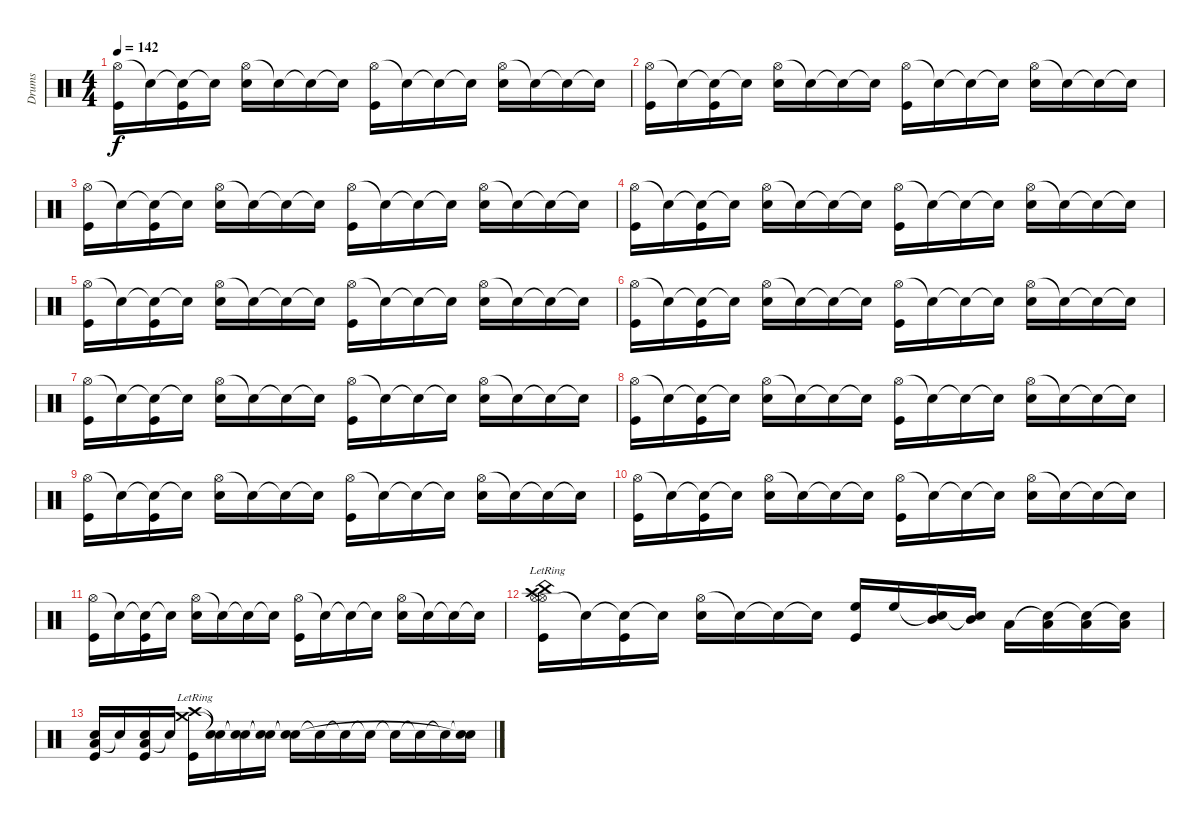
\track ("Drums" "Drums") {instrument percussion}
\staff {score}
\articulation defaults
\ts (4 4)
\tempo 142
\clef neutral
\ks c
("Hi-Hat (open)" "Kick (hit)").16{dy f} "Snare (hit)"{t}.16 ("Snare (hit)"{t} "Kick (hit)").16 "Snare (hit)"{t}.16 ("Hi-Hat (open)" "Snare (hit) 2").16 "Snare (hit)"{t}.16 "Snare (hit)"{t}.16 "Snare (hit)"{t}.16 ("Hi-Hat (open)" "Kick (hit)").16 "Snare (hit)"{t}.16 "Snare (hit)"{t}.16 "Snare (hit)"{t}.16 ("Hi-Hat (open)" "Snare (hit) 2").16 "Snare (hit)"{t}.16 "Snare (hit)"{t}.16 "Snare (hit)"{t}.16 |
("Hi-Hat (open)" "Kick (hit)").16 "Snare (hit)"{t}.16 ("Snare (hit)"{t} "Kick (hit)").16 "Snare (hit)"{t}.16 ("Hi-Hat (open)" "Snare (hit) 2").16 "Snare (hit)"{t}.16 "Snare (hit)"{t}.16 "Snare (hit)"{t}.16 ("Hi-Hat (open)" "Kick (hit)").16 "Snare (hit)"{t}.16 "Snare (hit)"{t}.16 "Snare (hit)"{t}.16 ("Hi-Hat (open)" "Snare (hit) 2").16 "Snare (hit)"{t}.16 "Snare (hit)"{t}.16 "Snare (hit)"{t}.16 |
("Hi-Hat (open)" "Kick (hit)").16 "Snare (hit)"{t}.16 ("Snare (hit)"{t} "Kick (hit)").16 "Snare (hit)"{t}.16 ("Hi-Hat (open)" "Snare (hit) 2").16 "Snare (hit)"{t}.16 "Snare (hit)"{t}.16 "Snare (hit)"{t}.16 ("Hi-Hat (open)" "Kick (hit)").16 "Snare (hit)"{t}.16 "Snare (hit)"{t}.16 "Snare (hit)"{t}.16 ("Hi-Hat (open)" "Snare (hit) 2").16 "Snare (hit)"{t}.16 "Snare (hit)"{t}.16 "Snare (hit)"{t}.16 |
("Hi-Hat (open)" "Kick (hit)").16 "Snare (hit)"{t}.16 ("Snare (hit)"{t} "Kick (hit)").16 "Snare (hit)"{t}.16 ("Hi-Hat (open)" "Snare (hit) 2").16 "Snare (hit)"{t}.16 "Snare (hit)"{t}.16 "Snare (hit)"{t}.16 ("Hi-Hat (open)" "Kick (hit)").16 "Snare (hit)"{t}.16 "Snare (hit)"{t}.16 "Snare (hit)"{t}.16 ("Hi-Hat (open)" "Snare (hit) 2").16 "Snare (hit)"{t}.16 "Snare (hit)"{t}.16 "Snare (hit)"{t}.16 |
("Hi-Hat (open)" "Kick (hit)").16 "Snare (hit)"{t}.16 ("Snare (hit)"{t} "Kick (hit)").16 "Snare (hit)"{t}.16 ("Hi-Hat (open)" "Snare (hit) 2").16 "Snare (hit)"{t}.16 "Snare (hit)"{t}.16 "Snare (hit)"{t}.16 ("Hi-Hat (open)" "Kick (hit)").16 "Snare (hit)"{t}.16 "Snare (hit)"{t}.16 "Snare (hit)"{t}.16 ("Hi-Hat (open)" "Snare (hit) 2").16 "Snare (hit)"{t}.16 "Snare (hit)"{t}.16 "Snare (hit)"{t}.16 |
("Hi-Hat (open)" "Kick (hit)").16 "Snare (hit)"{t}.16 ("Snare (hit)"{t} "Kick (hit)").16 "Snare (hit)"{t}.16 ("Hi-Hat (open)" "Snare (hit) 2").16 "Snare (hit)"{t}.16 "Snare (hit)"{t}.16 "Snare (hit)"{t}.16 ("Hi-Hat (open)" "Kick (hit)").16 "Snare (hit)"{t}.16 "Snare (hit)"{t}.16 "Snare (hit)"{t}.16 ("Hi-Hat (open)" "Snare (hit) 2").16 "Snare (hit)"{t}.16 "Snare (hit)"{t}.16 "Snare (hit)"{t}.16 |
("Hi-Hat (open)" "Kick (hit)").16 "Snare (hit)"{t}.16 ("Snare (hit)"{t} "Kick (hit)").16 "Snare (hit)"{t}.16 ("Hi-Hat (open)" "Snare (hit) 2").16 "Snare (hit)"{t}.16 "Snare (hit)"{t}.16 "Snare (hit)"{t}.16 ("Hi-Hat (open)" "Kick (hit)").16 "Snare (hit)"{t}.16 "Snare (hit)"{t}.16 "Snare (hit)"{t}.16 ("Hi-Hat (open)" "Snare (hit) 2").16 "Snare (hit)"{t}.16 "Snare (hit)"{t}.16 "Snare (hit)"{t}.16 |
("Hi-Hat (open)" "Kick (hit)").16 "Snare (hit)"{t}.16 ("Snare (hit)"{t} "Kick (hit)").16 "Snare (hit)"{t}.16 ("Hi-Hat (open)" "Snare (hit) 2").16 "Snare (hit)"{t}.16 "Snare (hit)"{t}.16 "Snare (hit)"{t}.16 ("Hi-Hat (open)" "Kick (hit)").16 "Snare (hit)"{t}.16 "Snare (hit)"{t}.16 "Snare (hit)"{t}.16 ("Hi-Hat (open)" "Snare (hit) 2").16 "Snare (hit)"{t}.16 "Snare (hit)"{t}.16 "Snare (hit)"{t}.16 |
("Hi-Hat (open)" "Kick (hit)").16 "Snare (hit)"{t}.16 ("Snare (hit)"{t} "Kick (hit)").16 "Snare (hit)"{t}.16 ("Hi-Hat (open)" "Snare (hit) 2").16 "Snare (hit)"{t}.16 "Snare (hit)"{t}.16 "Snare (hit)"{t}.16 ("Hi-Hat (open)" "Kick (hit)").16 "Snare (hit)"{t}.16 "Snare (hit)"{t}.16 "Snare (hit)"{t}.16 ("Hi-Hat (open)" "Snare (hit) 2").16 "Snare (hit)"{t}.16 "Snare (hit)"{t}.16 "Snare (hit)"{t}.16 |
("Hi-Hat (open)" "Kick (hit)").16 "Snare (hit)"{t}.16 ("Snare (hit)"{t} "Kick (hit)").16 "Snare (hit)"{t}.16 ("Hi-Hat (open)" "Snare (hit) 2").16 "Snare (hit)"{t}.16 "Snare (hit)"{t}.16 "Snare (hit)"{t}.16 ("Hi-Hat (open)" "Kick (hit)").16 "Snare (hit)"{t}.16 "Snare (hit)"{t}.16 "Snare (hit)"{t}.16 ("Hi-Hat (open)" "Snare (hit) 2").16 "Snare (hit)"{t}.16 "Snare (hit)"{t}.16 "Snare (hit)"{t}.16 |
("Hi-Hat (open)" "Kick (hit)").16 "Snare (hit)"{t}.16 ("Snare (hit)"{t} "Kick (hit)").16 "Snare (hit)"{t}.16 ("Hi-Hat (open)" "Snare (hit) 2").16 "Snare (hit)"{t}.16 "Snare (hit)"{t}.16 "Snare (hit)"{t}.16 ("Hi-Hat (open)" "Kick (hit)").16 "Snare (hit)"{t}.16 "Snare (hit)"{t}.16 "Snare (hit)"{t}.16 ("Hi-Hat (open)" "Snare (hit) 2").16 "Snare (hit)"{t}.16 "Snare (hit)"{t}.16 "Snare (hit)"{t}.16 |
("Hi-Hat (open)" "Hi-Hat (open)" "Crash high (hit)"{lr} "China (hit)" "Kick (hit)").16 "Snare (hit)"{t}.16 ("Snare (hit)"{t} "Kick (hit)").16 "Snare (hit)"{t}.16 ("Hi-Hat (open)" "Snare (hit) 2").16 "Snare (hit)"{t}.16 "Snare (hit)"{t}.16 "Snare (hit)"{t}.16 ("High Floor Tom (hit)" "Kick (hit)").16 "High Floor Tom (hit)".16 ("Snare (hit)"{t} "Mid Tom (hit)").16 ("Snare (hit)"{t} "Mid Tom (hit)").16 "Low Tom (hit)".16 ("Snare (hit)"{t} "Low Tom (hit)").16 ("Snare (hit)"{t} "Low Floor Tom (hit)").16 ("Snare (hit)"{t} "Low Floor Tom (hit)").16 |
("Low Floor Tom (hit)" "Snare (hit) 2" "Kick (hit)").16 "Snare (hit)"{t}.16 ("Low Floor Tom (hit)" "Snare (hit) 2" "Kick (hit)").16 "Snare (hit)"{t}.16 ("Crash high (hit)"{lr} "Crash medium (hit)"{lr} "Kick (hit)").16 ("Snare (hit)"{t} "Snare (hit)"{t}).16 ("Snare (hit)"{t} "Snare (hit)"{t}).16 ("Snare (hit)"{t} "Snare (hit)"{t}).16 ("Snare (hit)"{t} "Snare (hit)"{t}).16 "Snare (hit)"{t}.16 "Snare (hit)"{t}.16 "Snare (hit)"{t}.16 "Snare (hit)"{t}.16 "Snare (hit)"{t}.16 "Snare (hit)"{t}.16 ("Snare (hit)"{t} "Snare (hit)"{t}).16
